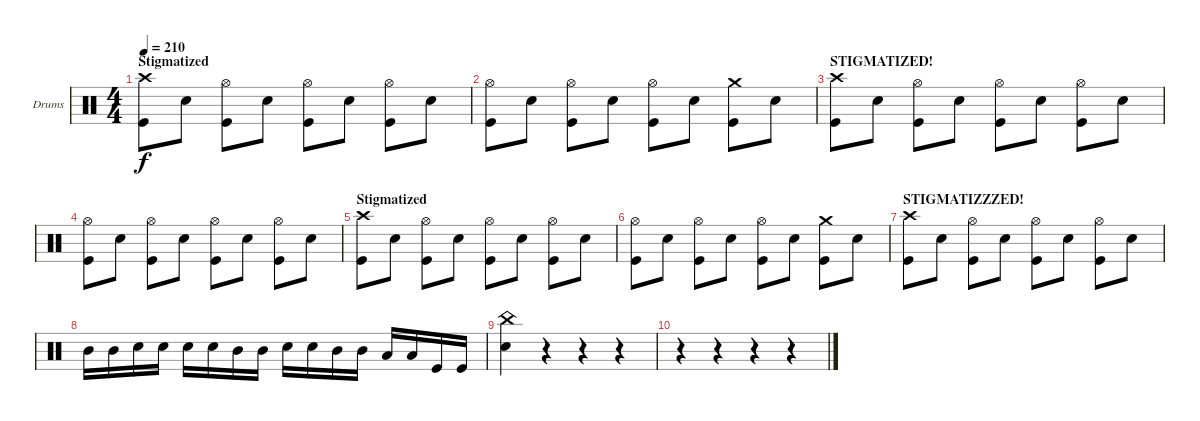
\defaultSystemsLayout 4
\bracketExtendMode groupsimilarinstruments
\firstSystemTrackNameOrientation horizontal
\otherSystemsTrackNameOrientation horizontal
\track ("Markus Freiwald" "Drums") {instrument percussion}
\staff {score}
\articulation defaults
\ts (4 4)
\section ("" "Stigmatized")
\tempo 210
\clef neutral
\scale
0.5
\ks c
("Crash high (hit)" "Kick (hit)").8{dy f} "Snare (hit) 2".8 ("Kick (hit)" "Hi-Hat (open)").8 "Snare (hit) 2".8 ("Kick (hit)" "Hi-Hat (open)").8 "Snare (hit) 2".8 ("Kick (hit)" "Hi-Hat (open)").8 "Snare (hit) 2".8 |
\scale
0.5 ("Kick (hit)" "Hi-Hat (open)").8 "Snare (hit) 2".8 ("Kick (hit)" "Hi-Hat (open)").8 "Snare (hit) 2".8 ("Kick (hit)" "Hi-Hat (open)").8 "Snare (hit) 2".8 ("Kick (hit)" "Crash medium (hit)").8 "Snare (hit) 2".8 |
\section ("" "STIGMATIZED!")
\scale
0.5 ("Crash high (hit)" "Kick (hit)").8 "Snare (hit) 2".8 ("Kick (hit)" "Hi-Hat (open)").8 "Snare (hit) 2".8 ("Kick (hit)" "Hi-Hat (open)").8 "Snare (hit) 2".8 ("Kick (hit)" "Hi-Hat (open)").8 "Snare (hit) 2".8 |
\scale
0.5 ("Kick (hit)" "Hi-Hat (open)").8 "Snare (hit) 2".8 ("Kick (hit)" "Hi-Hat (open)").8 "Snare (hit) 2".8 ("Kick (hit)" "Hi-Hat (open)").8 "Snare (hit) 2".8 ("Kick (hit)" "Hi-Hat (open)").8 "Snare (hit) 2".8 |
\section ("" "Stigmatized")
\scale
0.5 ("Crash high (hit)" "Kick (hit)").8 "Snare (hit) 2".8 ("Kick (hit)" "Hi-Hat (open)").8 "Snare (hit) 2".8 ("Kick (hit)" "Hi-Hat (open)").8 "Snare (hit) 2".8 ("Kick (hit)" "Hi-Hat (open)").8 "Snare (hit) 2".8 |
\scale
0.5 ("Kick (hit)" "Hi-Hat (open)").8 "Snare (hit) 2".8 ("Kick (hit)" "Hi-Hat (open)").8 "Snare (hit) 2".8 ("Kick (hit)" "Hi-Hat (open)").8 "Snare (hit) 2".8 ("Kick (hit)" "Crash medium (hit)").8 "Snare (hit) 2".8 |
\section ("" "STIGMATIZZZED!")
\scale
0.5 ("Crash high (hit)" "Kick (hit)").8 "Snare (hit) 2".8 ("Kick (hit)" "Hi-Hat (open)").8 "Snare (hit) 2".8 ("Kick (hit)" "Hi-Hat (open)").8 "Snare (hit) 2".8 ("Kick (hit)" "Hi-Hat (open)").8 "Snare (hit) 2".8 |
\scale
0.5 "Mid Tom (hit)".16 "Mid Tom (hit)".16 "Snare (hit) 2".16 "Snare (hit) 2".16 "Snare (hit) 2".16 "Snare (hit) 2".16 "Mid Tom (hit)".16 "Mid Tom (hit)".16 "Snare (hit) 2".16 "Snare (hit) 2".16 "Mid Tom (hit)".16 "Mid Tom (hit)".16 "Low Tom (hit)".16 "Low Tom (hit)".16 "Kick (hit)".16 "Kick (hit)".16 |
("Snare (hit) 2" "China (hit)").4 r.4 r.4 r.4 |
r.4 r.4 r.4 r.4
